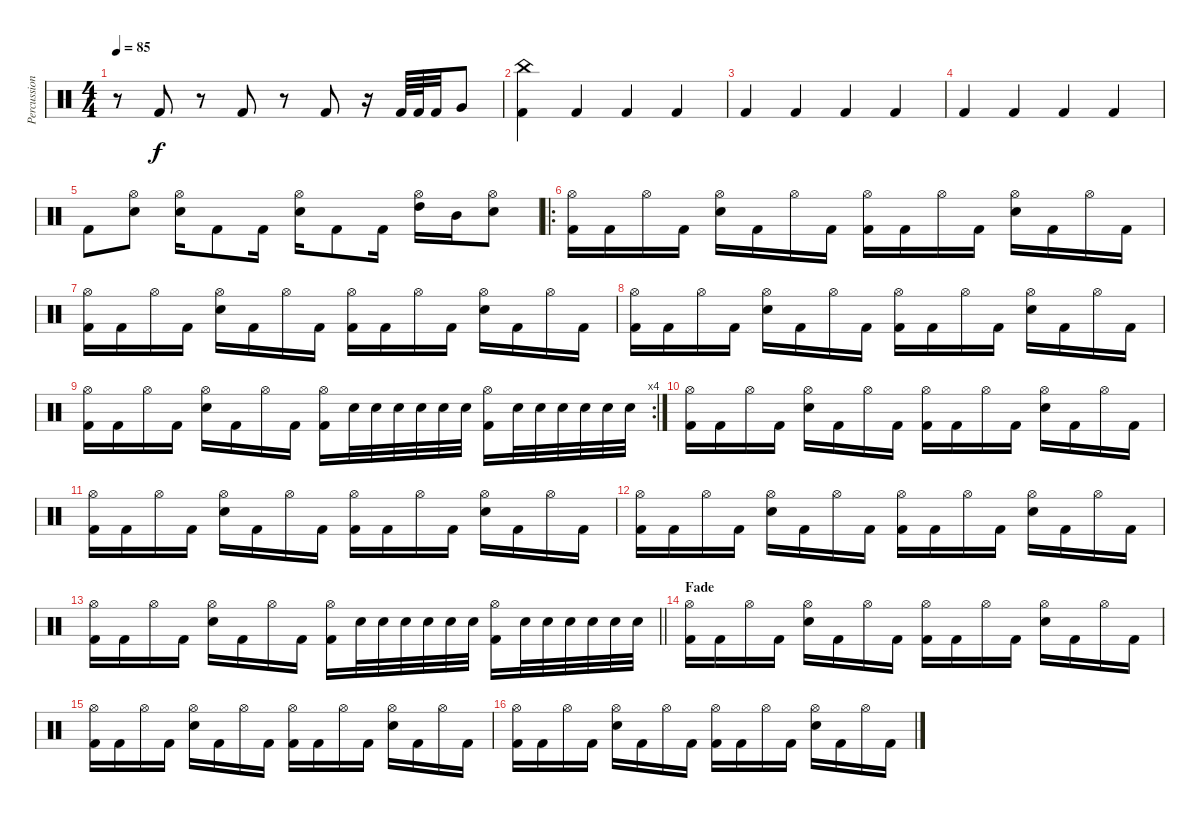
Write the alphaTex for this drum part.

\track ("Percussion" "Percussion") {instrument percussion}
\staff {score}
\articulation defaults
\ts (4 4)
\tempo 85
\clef neutral
\ks c
r.8{dy f} "Kick (hit) 2".8 r.8 "Kick (hit) 2".8 r.8 "Kick (hit) 2".8 r.16 "Kick (hit) 2".64 "Kick (hit) 2".64 "Kick (hit) 2".32 "Very Low Tom (hit)".8 |
("China (hit)" "Kick (hit) 2").4 "Kick (hit) 2".4 "Kick (hit) 2".4 "Kick (hit) 2".4 |
"Kick (hit) 2".4 "Kick (hit) 2".4 "Kick (hit) 2".4 "Kick (hit) 2".4 |
"Kick (hit) 2".4 "Kick (hit) 2".4 "Kick (hit) 2".4 "Kick (hit) 2".4 |
"Kick (hit) 2".8 ("Hi-Hat (open)" "Electric Snare (hit)").8 ("Hi-Hat (open)" "Electric Snare (hit)").16 "Kick (hit) 2".8 "Kick (hit) 2".16 ("Hi-Hat (open)" "Electric Snare (hit)").16 "Kick (hit) 2".8 "Kick (hit) 2".16 ("Hi-Hat (open)" "High Tom (hit)").16 "Mid Tom (hit)".16 ("Hi-Hat (open)" "Electric Snare (hit)").8 |
\ro
("Hi-Hat (open)" "Kick (hit) 2").16 "Kick (hit) 2".16 "Hi-Hat (open)".16 "Kick (hit) 2".16 ("Hi-Hat (open)" "Electric Snare (hit)").16 "Kick (hit) 2".16 "Hi-Hat (open)".16 "Kick (hit) 2".16 ("Hi-Hat (open)" "Kick (hit) 2").16 "Kick (hit) 2".16 "Hi-Hat (open)".16 "Kick (hit) 2".16 ("Hi-Hat (open)" "Electric Snare (hit)").16 "Kick (hit) 2".16 "Hi-Hat (open)".16 "Kick (hit) 2".16 |
("Hi-Hat (open)" "Kick (hit) 2").16 "Kick (hit) 2".16 "Hi-Hat (open)".16 "Kick (hit) 2".16 ("Hi-Hat (open)" "Electric Snare (hit)").16 "Kick (hit) 2".16 "Hi-Hat (open)".16 "Kick (hit) 2".16 ("Hi-Hat (open)" "Kick (hit) 2").16 "Kick (hit) 2".16 "Hi-Hat (open)".16 "Kick (hit) 2".16 ("Hi-Hat (open)" "Electric Snare (hit)").16 "Kick (hit) 2".16 "Hi-Hat (open)".16 "Kick (hit) 2".16 |
("Hi-Hat (open)" "Kick (hit) 2").16 "Kick (hit) 2".16 "Hi-Hat (open)".16 "Kick (hit) 2".16 ("Hi-Hat (open)" "Electric Snare (hit)").16 "Kick (hit) 2".16 "Hi-Hat (open)".16 "Kick (hit) 2".16 ("Hi-Hat (open)" "Kick (hit) 2").16 "Kick (hit) 2".16 "Hi-Hat (open)".16 "Kick (hit) 2".16 ("Hi-Hat (open)" "Electric Snare (hit)").16 "Kick (hit) 2".16 "Hi-Hat (open)".16 "Kick (hit) 2".16 |
\rc 4
("Hi-Hat (open)" "Kick (hit) 2").16 "Kick (hit) 2".16 "Hi-Hat (open)".16 "Kick (hit) 2".16 ("Hi-Hat (open)" "Electric Snare (hit)").16 "Kick (hit) 2".16 "Hi-Hat (open)".16 "Kick (hit) 2".16 ("Hi-Hat (open)" "Kick (hit) 2").16 "Electric Snare (hit)".32 "Electric Snare (hit)".32 "Electric Snare (hit)".32 "Electric Snare (hit)".32 "Electric Snare (hit)".32 "Electric Snare (hit)".32 ("Hi-Hat (open)" "Kick (hit) 2").16 "Electric Snare (hit)".32 "Electric Snare (hit)".32 "Electric Snare (hit)".32 "Electric Snare (hit)".32 "Electric Snare (hit)".32 "Electric Snare (hit)".32 |
("Hi-Hat (open)" "Kick (hit) 2").16 "Kick (hit) 2".16 "Hi-Hat (open)".16 "Kick (hit) 2".16 ("Hi-Hat (open)" "Electric Snare (hit)").16 "Kick (hit) 2".16 "Hi-Hat (open)".16 "Kick (hit) 2".16 ("Hi-Hat (open)" "Kick (hit) 2").16 "Kick (hit) 2".16 "Hi-Hat (open)".16 "Kick (hit) 2".16 ("Hi-Hat (open)" "Electric Snare (hit)").16 "Kick (hit) 2".16 "Hi-Hat (open)".16 "Kick (hit) 2".16 |
("Hi-Hat (open)" "Kick (hit) 2").16 "Kick (hit) 2".16 "Hi-Hat (open)".16 "Kick (hit) 2".16 ("Hi-Hat (open)" "Electric Snare (hit)").16 "Kick (hit) 2".16 "Hi-Hat (open)".16 "Kick (hit) 2".16 ("Hi-Hat (open)" "Kick (hit) 2").16 "Kick (hit) 2".16 "Hi-Hat (open)".16 "Kick (hit) 2".16 ("Hi-Hat (open)" "Electric Snare (hit)").16 "Kick (hit) 2".16 "Hi-Hat (open)".16 "Kick (hit) 2".16 |
("Hi-Hat (open)" "Kick (hit) 2").16 "Kick (hit) 2".16 "Hi-Hat (open)".16 "Kick (hit) 2".16 ("Hi-Hat (open)" "Electric Snare (hit)").16 "Kick (hit) 2".16 "Hi-Hat (open)".16 "Kick (hit) 2".16 ("Hi-Hat (open)" "Kick (hit) 2").16 "Kick (hit) 2".16 "Hi-Hat (open)".16 "Kick (hit) 2".16 ("Hi-Hat (open)" "Electric Snare (hit)").16 "Kick (hit) 2".16 "Hi-Hat (open)".16 "Kick (hit) 2".16 |
\barLineRight lightlight
("Hi-Hat (open)" "Kick (hit) 2").16 "Kick (hit) 2".16 "Hi-Hat (open)".16 "Kick (hit) 2".16 ("Hi-Hat (open)" "Electric Snare (hit)").16 "Kick (hit) 2".16 "Hi-Hat (open)".16 "Kick (hit) 2".16 ("Hi-Hat (open)" "Kick (hit) 2").16 "Electric Snare (hit)".32 "Electric Snare (hit)".32 "Electric Snare (hit)".32 "Electric Snare (hit)".32 "Electric Snare (hit)".32 "Electric Snare (hit)".32 ("Hi-Hat (open)" "Kick (hit) 2").16 "Electric Snare (hit)".32 "Electric Snare (hit)".32 "Electric Snare (hit)".32 "Electric Snare (hit)".32 "Electric Snare (hit)".32 "Electric Snare (hit)".32 |
\section ("" "Fade")
("Hi-Hat (open)" "Kick (hit) 2").16 "Kick (hit) 2".16 "Hi-Hat (open)".16 "Kick (hit) 2".16 ("Hi-Hat (open)" "Electric Snare (hit)").16 "Kick (hit) 2".16 "Hi-Hat (open)".16 "Kick (hit) 2".16 ("Hi-Hat (open)" "Kick (hit) 2").16 "Kick (hit) 2".16 "Hi-Hat (open)".16 "Kick (hit) 2".16 ("Hi-Hat (open)" "Electric Snare (hit)").16 "Kick (hit) 2".16 "Hi-Hat (open)".16 "Kick (hit) 2".16 |
("Hi-Hat (open)" "Kick (hit) 2").16 "Kick (hit) 2".16 "Hi-Hat (open)".16 "Kick (hit) 2".16 ("Hi-Hat (open)" "Electric Snare (hit)").16 "Kick (hit) 2".16 "Hi-Hat (open)".16 "Kick (hit) 2".16 ("Hi-Hat (open)" "Kick (hit) 2").16 "Kick (hit) 2".16 "Hi-Hat (open)".16 "Kick (hit) 2".16 ("Hi-Hat (open)" "Electric Snare (hit)").16 "Kick (hit) 2".16 "Hi-Hat (open)".16 "Kick (hit) 2".16 |
("Hi-Hat (open)" "Kick (hit) 2").16 "Kick (hit) 2".16 "Hi-Hat (open)".16 "Kick (hit) 2".16 ("Hi-Hat (open)" "Electric Snare (hit)").16 "Kick (hit) 2".16 "Hi-Hat (open)".16 "Kick (hit) 2".16 ("Hi-Hat (open)" "Kick (hit) 2").16 "Kick (hit) 2".16 "Hi-Hat (open)".16 "Kick (hit) 2".16 ("Hi-Hat (open)" "Electric Snare (hit)").16 "Kick (hit) 2".16 "Hi-Hat (open)".16 "Kick (hit) 2".16
